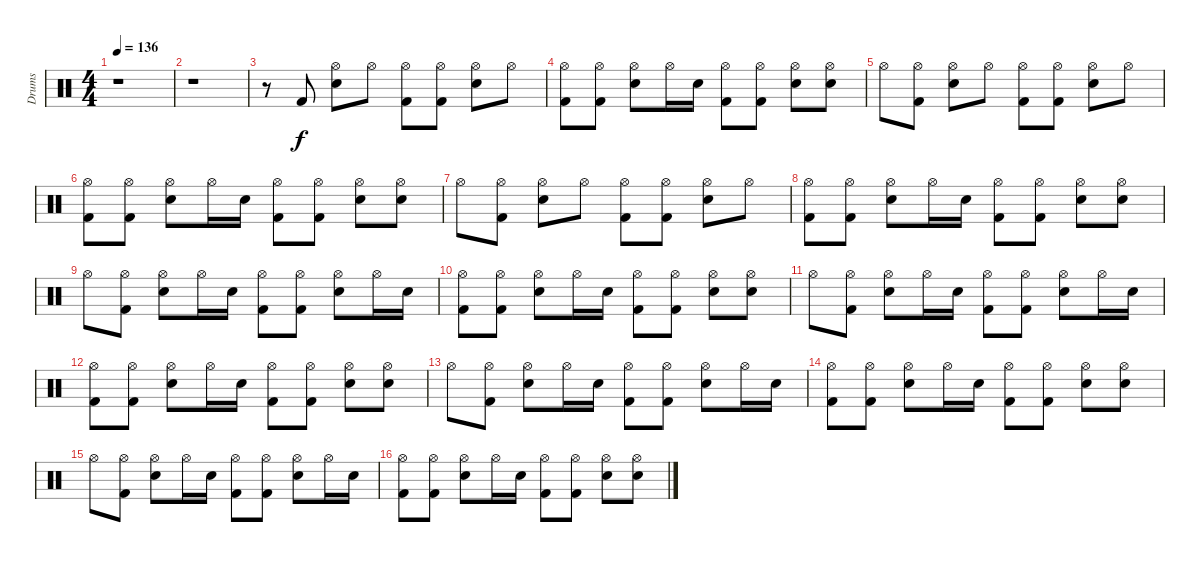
\track ("Drums" "Drums") {instrument percussion}
\staff {score}
\articulation defaults
\ts (4 4)
\tempo 136
\clef neutral
\ks c
r.1{dy f} |
r.1 |
r.8 "Kick (hit) 2".8 ("Hi-Hat (open)" "Snare (hit) 2").8 "Hi-Hat (open)".8 ("Hi-Hat (open)" "Kick (hit) 2").8 ("Hi-Hat (open)" "Kick (hit) 2").8 ("Hi-Hat (open)" "Snare (hit) 2").8 "Hi-Hat (open)".8 |
("Hi-Hat (open)" "Kick (hit) 2").8 ("Hi-Hat (open)" "Kick (hit) 2").8 ("Hi-Hat (open)" "Snare (hit) 2").8 "Hi-Hat (open)".16 "Snare (hit) 2".16 ("Hi-Hat (open)" "Kick (hit) 2").8 ("Hi-Hat (open)" "Kick (hit) 2").8 ("Hi-Hat (open)" "Snare (hit) 2").8 ("Hi-Hat (open)" "Snare (hit) 2").8 |
"Hi-Hat (open)".8 ("Hi-Hat (open)" "Kick (hit) 2").8 ("Hi-Hat (open)" "Snare (hit) 2").8 "Hi-Hat (open)".8 ("Hi-Hat (open)" "Kick (hit) 2").8 ("Hi-Hat (open)" "Kick (hit) 2").8 ("Hi-Hat (open)" "Snare (hit) 2").8 "Hi-Hat (open)".8 |
("Hi-Hat (open)" "Kick (hit) 2").8 ("Hi-Hat (open)" "Kick (hit) 2").8 ("Hi-Hat (open)" "Snare (hit) 2").8 "Hi-Hat (open)".16 "Snare (hit) 2".16 ("Hi-Hat (open)" "Kick (hit) 2").8 ("Hi-Hat (open)" "Kick (hit) 2").8 ("Hi-Hat (open)" "Snare (hit) 2").8 ("Hi-Hat (open)" "Snare (hit) 2").8 |
"Hi-Hat (open)".8 ("Hi-Hat (open)" "Kick (hit) 2").8 ("Hi-Hat (open)" "Snare (hit) 2").8 "Hi-Hat (open)".8 ("Hi-Hat (open)" "Kick (hit) 2").8 ("Hi-Hat (open)" "Kick (hit) 2").8 ("Hi-Hat (open)" "Snare (hit) 2").8 "Hi-Hat (open)".8 |
("Hi-Hat (open)" "Kick (hit) 2").8 ("Hi-Hat (open)" "Kick (hit) 2").8 ("Hi-Hat (open)" "Snare (hit) 2").8 "Hi-Hat (open)".16 "Snare (hit) 2".16 ("Hi-Hat (open)" "Kick (hit) 2").8 ("Hi-Hat (open)" "Kick (hit) 2").8 ("Hi-Hat (open)" "Snare (hit) 2").8 ("Hi-Hat (open)" "Snare (hit) 2").8 |
"Hi-Hat (open)".8 ("Hi-Hat (open)" "Kick (hit) 2").8 ("Hi-Hat (open)" "Snare (hit) 2").8 "Hi-Hat (open)".16 "Snare (hit) 2".16 ("Hi-Hat (open)" "Kick (hit) 2").8 ("Hi-Hat (open)" "Kick (hit) 2").8 ("Hi-Hat (open)" "Snare (hit) 2").8 "Hi-Hat (open)".16 "Snare (hit) 2".16 |
("Hi-Hat (open)" "Kick (hit) 2").8 ("Hi-Hat (open)" "Kick (hit) 2").8 ("Hi-Hat (open)" "Snare (hit) 2").8 "Hi-Hat (open)".16 "Snare (hit) 2".16 ("Hi-Hat (open)" "Kick (hit) 2").8 ("Hi-Hat (open)" "Kick (hit) 2").8 ("Hi-Hat (open)" "Snare (hit) 2").8 ("Hi-Hat (open)" "Snare (hit) 2").8 |
"Hi-Hat (open)".8 ("Hi-Hat (open)" "Kick (hit) 2").8 ("Hi-Hat (open)" "Snare (hit) 2").8 "Hi-Hat (open)".16 "Snare (hit) 2".16 ("Hi-Hat (open)" "Kick (hit) 2").8 ("Hi-Hat (open)" "Kick (hit) 2").8 ("Hi-Hat (open)" "Snare (hit) 2").8 "Hi-Hat (open)".16 "Snare (hit) 2".16 |
("Hi-Hat (open)" "Kick (hit) 2").8 ("Hi-Hat (open)" "Kick (hit) 2").8 ("Hi-Hat (open)" "Snare (hit) 2").8 "Hi-Hat (open)".16 "Snare (hit) 2".16 ("Hi-Hat (open)" "Kick (hit) 2").8 ("Hi-Hat (open)" "Kick (hit) 2").8 ("Hi-Hat (open)" "Snare (hit) 2").8 ("Hi-Hat (open)" "Snare (hit) 2").8 |
"Hi-Hat (open)".8 ("Hi-Hat (open)" "Kick (hit) 2").8 ("Hi-Hat (open)" "Snare (hit) 2").8 "Hi-Hat (open)".16 "Snare (hit) 2".16 ("Hi-Hat (open)" "Kick (hit) 2").8 ("Hi-Hat (open)" "Kick (hit) 2").8 ("Hi-Hat (open)" "Snare (hit) 2").8 "Hi-Hat (open)".16 "Snare (hit) 2".16 |
("Hi-Hat (open)" "Kick (hit) 2").8 ("Hi-Hat (open)" "Kick (hit) 2").8 ("Hi-Hat (open)" "Snare (hit) 2").8 "Hi-Hat (open)".16 "Snare (hit) 2".16 ("Hi-Hat (open)" "Kick (hit) 2").8 ("Hi-Hat (open)" "Kick (hit) 2").8 ("Hi-Hat (open)" "Snare (hit) 2").8 ("Hi-Hat (open)" "Snare (hit) 2").8 |
"Hi-Hat (open)".8 ("Hi-Hat (open)" "Kick (hit) 2").8 ("Hi-Hat (open)" "Snare (hit) 2").8 "Hi-Hat (open)".16 "Snare (hit) 2".16 ("Hi-Hat (open)" "Kick (hit) 2").8 ("Hi-Hat (open)" "Kick (hit) 2").8 ("Hi-Hat (open)" "Snare (hit) 2").8 "Hi-Hat (open)".16 "Snare (hit) 2".16 |
("Hi-Hat (open)" "Kick (hit) 2").8 ("Hi-Hat (open)" "Kick (hit) 2").8 ("Hi-Hat (open)" "Snare (hit) 2").8 "Hi-Hat (open)".16 "Snare (hit) 2".16 ("Hi-Hat (open)" "Kick (hit) 2").8 ("Hi-Hat (open)" "Kick (hit) 2").8 ("Hi-Hat (open)" "Snare (hit) 2").8 ("Hi-Hat (open)" "Snare (hit) 2").8
